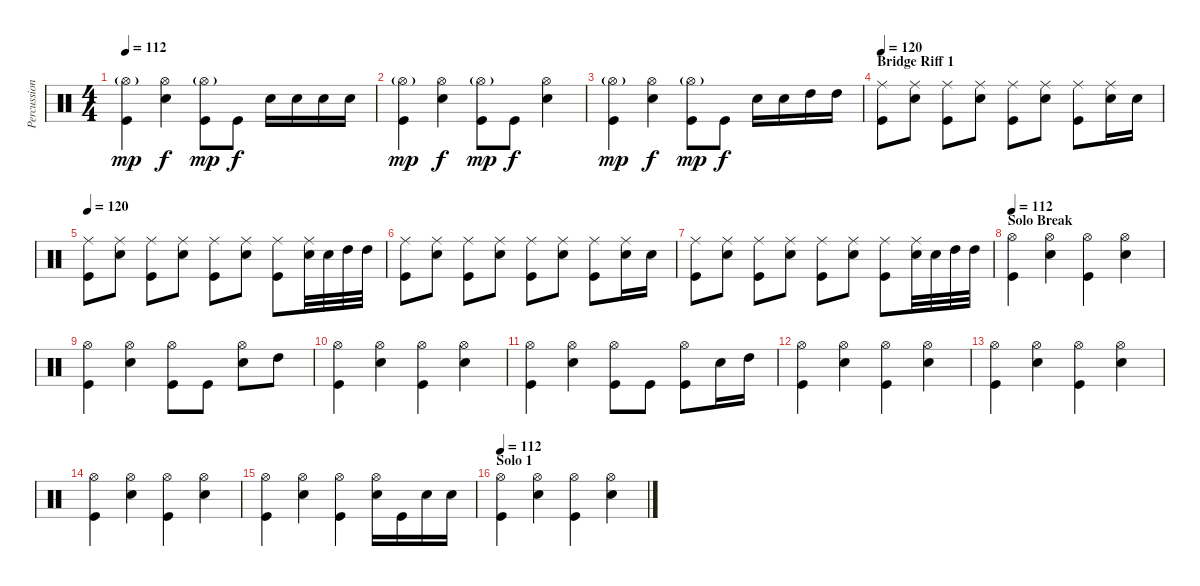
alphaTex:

\track ("Percussion" "Percussion") {instrument percussion}
\staff {score}
\articulation defaults
\ts (4 4)
\tempo 112
\clef neutral
\ks c
("Hi-Hat (open)"{g} "Kick (hit)").4{dy mp} ("Hi-Hat (open)" "Snare (hit) 2").4{dy f} ("Hi-Hat (open)"{g} "Kick (hit)").8{dy mp} "Kick (hit)".8{dy f} "Snare (hit) 2".16 "Snare (hit) 2".16 "Snare (hit) 2".16 "Snare (hit) 2".16 |
("Hi-Hat (open)"{g} "Kick (hit)").4{dy mp} ("Hi-Hat (open)" "Snare (hit) 2").4{dy f} ("Hi-Hat (open)"{g} "Kick (hit)").8{dy mp} "Kick (hit)".8{dy f} ("Hi-Hat (open)" "Snare (hit) 2").4 |
("Hi-Hat (open)"{g} "Kick (hit)").4{dy mp} ("Hi-Hat (open)" "Snare (hit) 2").4{dy f} ("Hi-Hat (open)"{g} "Kick (hit)").8{dy mp} "Kick (hit)".8{dy f} "Snare (hit) 2".16 "Snare (hit) 2".16 "High Tom (hit)".16 "High Tom (hit)".16 |
\section ("" "Bridge Riff 1")
\tempo 120
("Ride (middle)" "Kick (hit)").8 ("Ride (middle)" "Snare (hit) 2").8 ("Ride (middle)" "Kick (hit)").8 ("Ride (middle)" "Snare (hit) 2").8 ("Ride (middle)" "Kick (hit)").8 ("Ride (middle)" "Snare (hit) 2").8 ("Ride (middle)" "Kick (hit)").8 ("Ride (middle)" "Snare (hit) 2").16 "Snare (hit) 2".16 |
\tempo 120
("Ride (middle)" "Kick (hit)").8 ("Ride (middle)" "Snare (hit) 2").8 ("Ride (middle)" "Kick (hit)").8 ("Ride (middle)" "Snare (hit) 2").8 ("Ride (middle)" "Kick (hit)").8 ("Ride (middle)" "Snare (hit) 2").8 ("Ride (middle)" "Kick (hit)").8 ("Ride (middle)" "Snare (hit) 2").32 "Snare (hit) 2".32 "High Tom (hit)".32 "High Tom (hit)".32 |
("Ride (middle)" "Kick (hit)").8 ("Ride (middle)" "Snare (hit) 2").8 ("Ride (middle)" "Kick (hit)").8 ("Ride (middle)" "Snare (hit) 2").8 ("Ride (middle)" "Kick (hit)").8 ("Ride (middle)" "Snare (hit) 2").8 ("Ride (middle)" "Kick (hit)").8 ("Ride (middle)" "Snare (hit) 2").16 "Snare (hit) 2".16 |
("Ride (middle)" "Kick (hit)").8 ("Ride (middle)" "Snare (hit) 2").8 ("Ride (middle)" "Kick (hit)").8 ("Ride (middle)" "Snare (hit) 2").8 ("Ride (middle)" "Kick (hit)").8 ("Ride (middle)" "Snare (hit) 2").8 ("Ride (middle)" "Kick (hit)").8 ("Ride (middle)" "Snare (hit) 2").32 "Snare (hit) 2".32 "High Tom (hit)".32 "High Tom (hit)".32 |
\section ("" "Solo Break")
\tempo 112
("Hi-Hat (open)" "Kick (hit)").4{volume 13} ("Hi-Hat (open)" "Snare (hit) 2").4 ("Hi-Hat (open)" "Kick (hit)").4 ("Hi-Hat (open)" "Snare (hit) 2").4 |
("Hi-Hat (open)" "Kick (hit)").4 ("Hi-Hat (open)" "Snare (hit) 2").4 ("Hi-Hat (open)" "Kick (hit)").8 "Kick (hit)".8 ("Hi-Hat (open)" "Snare (hit) 2").8 "High Tom (hit)".8 |
("Hi-Hat (open)" "Kick (hit)").4 ("Hi-Hat (open)" "Snare (hit) 2").4 ("Hi-Hat (open)" "Kick (hit)").4 ("Hi-Hat (open)" "Snare (hit) 2").4 |
("Hi-Hat (open)" "Kick (hit)").4 ("Hi-Hat (open)" "Snare (hit) 2").4 ("Hi-Hat (open)" "Kick (hit)").8 "Kick (hit)".8 ("Hi-Hat (open)" "Kick (hit)").8 "Snare (hit) 2".16 "High Tom (hit)".16 |
("Hi-Hat (open)" "Kick (hit)").4 ("Hi-Hat (open)" "Snare (hit) 2").4 ("Hi-Hat (open)" "Kick (hit)").4 ("Hi-Hat (open)" "Snare (hit) 2").4 |
("Hi-Hat (open)" "Kick (hit)").4 ("Hi-Hat (open)" "Snare (hit) 2").4 ("Hi-Hat (open)" "Kick (hit)").4 ("Hi-Hat (open)" "Snare (hit) 2").4 |
("Hi-Hat (open)" "Kick (hit)").4 ("Hi-Hat (open)" "Snare (hit) 2").4 ("Hi-Hat (open)" "Kick (hit)").4 ("Hi-Hat (open)" "Snare (hit) 2").4 |
("Hi-Hat (open)" "Kick (hit)").4 ("Hi-Hat (open)" "Snare (hit) 2").4 ("Hi-Hat (open)" "Kick (hit)").4 ("Hi-Hat (open)" "Snare (hit) 2").16 "Kick (hit)".16 "Snare (hit) 2".16 "Snare (hit) 2".16 |
\section ("" "Solo 1")
\tempo 112
("Hi-Hat (open)" "Kick (hit)").4{volume 14} ("Hi-Hat (open)" "Snare (hit) 2").4 ("Hi-Hat (open)" "Kick (hit)").4 ("Hi-Hat (open)" "Snare (hit) 2").4
